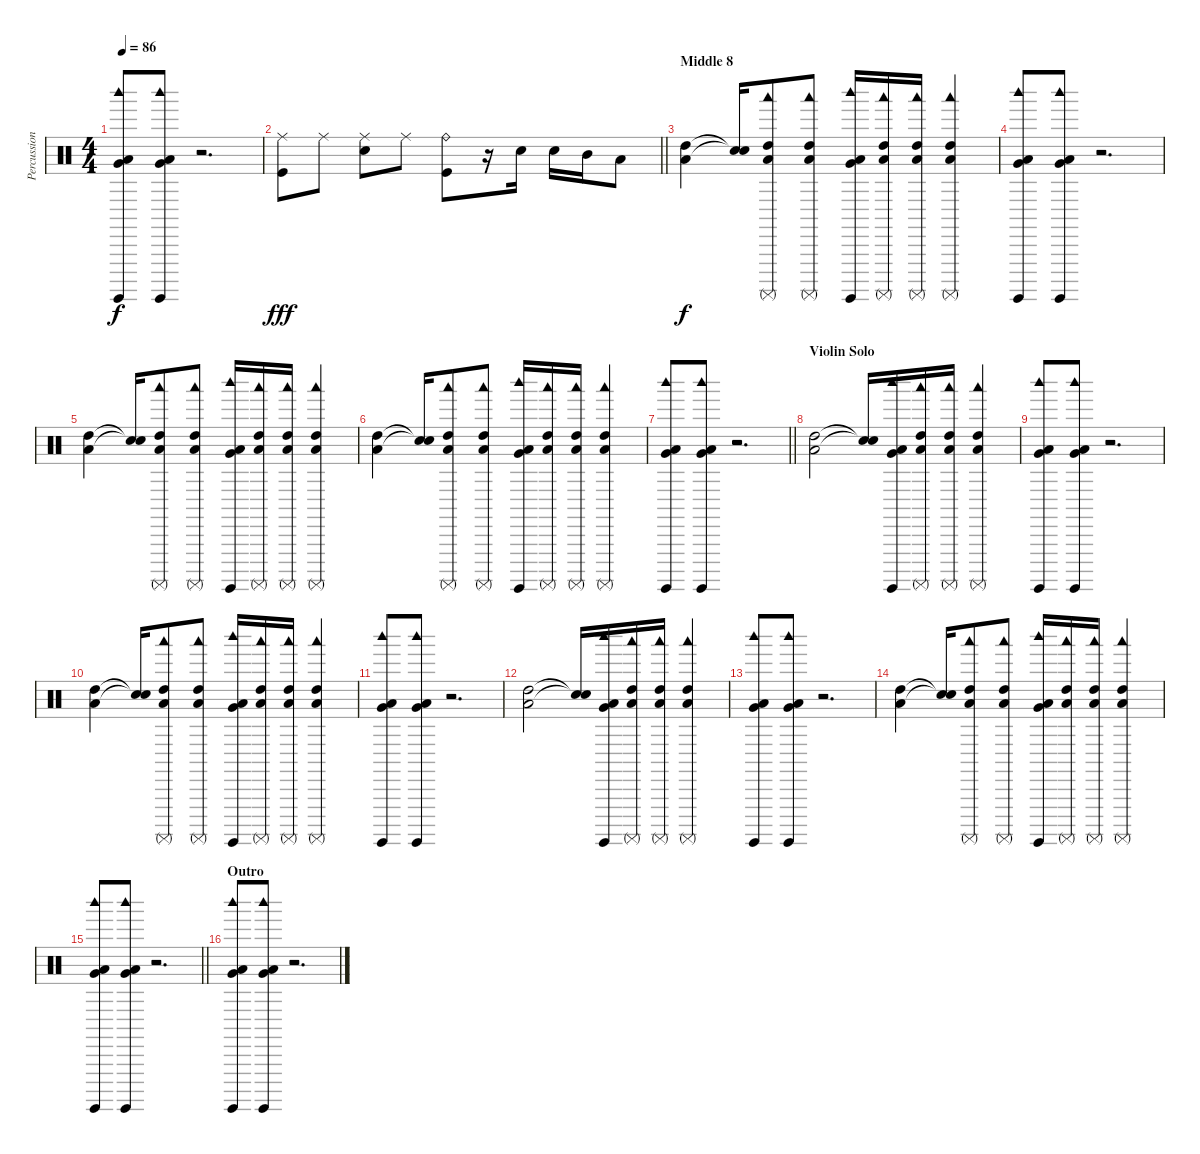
\track ("Percussion 2" "Percussion") {instrument percussion}
\staff {score}
\articulation defaults
\ts (4 4)
\tempo 86
\clef neutral
\ks c
("Low Tom (hit)" "Woodblock high (hit)" "Surdo (hit)" "Very Low Tom (hit)").8{dy f} ("Low Tom (hit)" "Woodblock high (hit)" "Surdo (hit)" "Very Low Tom (hit)").8 r.2{d} |
\barLineRight lightlight
("Ride (middle)" "Kick (hit)").8{dy fff} "Ride (middle)".8 ("Ride (middle)" "Electric Snare (hit)").8 "Ride (middle)".8 ("Ride (bell)" "Kick (hit)").8 r.16 "Electric Snare (hit)".16 "Electric Snare (hit)".16 "Mid Tom (hit)".16 "Low Tom (hit)".8 |
\section ("" "Middle 8")
("High Tom (hit)" "Low Tom (hit)").4{dy f} ("Snare (hit)"{t} "Snare (hit)"{t}).16 ("High Tom (hit)" "Woodblock low (hit)" "Surdo (mute)" "Low Tom (hit)").8 ("High Tom (hit)" "Woodblock low (hit)" "Surdo (mute)" "Low Tom (hit)").8 ("Low Tom (hit)" "Woodblock high (hit)" "Surdo (hit)" "Very Low Tom (hit)").16 ("High Tom (hit)" "Woodblock low (hit)" "Surdo (mute)" "Low Tom (hit)").16 ("High Tom (hit)" "Woodblock low (hit)" "Surdo (mute)" "Low Tom (hit)").16 ("High Tom (hit)" "Woodblock low (hit)" "Surdo (mute)" "Low Tom (hit)").4 |
("Low Tom (hit)" "Woodblock high (hit)" "Surdo (hit)" "Very Low Tom (hit)").8 ("Low Tom (hit)" "Woodblock high (hit)" "Surdo (hit)" "Very Low Tom (hit)").8 r.2{d} |
("High Tom (hit)" "Low Tom (hit)").4 ("Snare (hit)"{t} "Snare (hit)"{t}).16 ("High Tom (hit)" "Woodblock low (hit)" "Surdo (mute)" "Low Tom (hit)").8 ("High Tom (hit)" "Woodblock low (hit)" "Surdo (mute)" "Low Tom (hit)").8 ("Low Tom (hit)" "Woodblock high (hit)" "Surdo (hit)" "Very Low Tom (hit)").16 ("High Tom (hit)" "Woodblock low (hit)" "Surdo (mute)" "Low Tom (hit)").16 ("High Tom (hit)" "Woodblock low (hit)" "Surdo (mute)" "Low Tom (hit)").16 ("High Tom (hit)" "Woodblock low (hit)" "Surdo (mute)" "Low Tom (hit)").4 |
("High Tom (hit)" "Low Tom (hit)").4 ("Snare (hit)"{t} "Snare (hit)"{t}).16 ("High Tom (hit)" "Woodblock low (hit)" "Surdo (mute)" "Low Tom (hit)").8 ("High Tom (hit)" "Woodblock low (hit)" "Surdo (mute)" "Low Tom (hit)").8 ("Low Tom (hit)" "Woodblock high (hit)" "Surdo (hit)" "Very Low Tom (hit)").16 ("High Tom (hit)" "Woodblock low (hit)" "Surdo (mute)" "Low Tom (hit)").16 ("High Tom (hit)" "Woodblock low (hit)" "Surdo (mute)" "Low Tom (hit)").16 ("High Tom (hit)" "Woodblock low (hit)" "Surdo (mute)" "Low Tom (hit)").4 |
\barLineRight lightlight
("Low Tom (hit)" "Woodblock high (hit)" "Surdo (hit)" "Very Low Tom (hit)").8 ("Low Tom (hit)" "Woodblock high (hit)" "Surdo (hit)" "Very Low Tom (hit)").8 r.2{d} |
\section ("" "Violin Solo")
("High Tom (hit)" "Low Tom (hit)").2 ("Snare (hit)"{t} "Snare (hit)"{t}).16 ("Low Tom (hit)" "Woodblock high (hit)" "Surdo (hit)" "Very Low Tom (hit)").16 ("High Tom (hit)" "Woodblock low (hit)" "Surdo (mute)" "Low Tom (hit)").16 ("High Tom (hit)" "Woodblock low (hit)" "Surdo (mute)" "Low Tom (hit)").16 ("High Tom (hit)" "Woodblock low (hit)" "Surdo (mute)" "Low Tom (hit)").4 |
("Low Tom (hit)" "Woodblock high (hit)" "Surdo (hit)" "Very Low Tom (hit)").8 ("Low Tom (hit)" "Woodblock high (hit)" "Surdo (hit)" "Very Low Tom (hit)").8 r.2{d} |
("High Tom (hit)" "Low Tom (hit)").4 ("Snare (hit)"{t} "Snare (hit)"{t}).16 ("High Tom (hit)" "Woodblock low (hit)" "Surdo (mute)" "Low Tom (hit)").8 ("High Tom (hit)" "Woodblock low (hit)" "Surdo (mute)" "Low Tom (hit)").8 ("Low Tom (hit)" "Woodblock high (hit)" "Surdo (hit)" "Very Low Tom (hit)").16 ("High Tom (hit)" "Woodblock low (hit)" "Surdo (mute)" "Low Tom (hit)").16 ("High Tom (hit)" "Woodblock low (hit)" "Surdo (mute)" "Low Tom (hit)").16 ("High Tom (hit)" "Woodblock low (hit)" "Surdo (mute)" "Low Tom (hit)").4 |
("Low Tom (hit)" "Woodblock high (hit)" "Surdo (hit)" "Very Low Tom (hit)").8 ("Low Tom (hit)" "Woodblock high (hit)" "Surdo (hit)" "Very Low Tom (hit)").8 r.2{d} |
("High Tom (hit)" "Low Tom (hit)").2 ("Snare (hit)"{t} "Snare (hit)"{t}).16 ("Low Tom (hit)" "Woodblock high (hit)" "Surdo (hit)" "Very Low Tom (hit)").16 ("High Tom (hit)" "Woodblock low (hit)" "Surdo (mute)" "Low Tom (hit)").16 ("High Tom (hit)" "Woodblock low (hit)" "Surdo (mute)" "Low Tom (hit)").16 ("High Tom (hit)" "Woodblock low (hit)" "Surdo (mute)" "Low Tom (hit)").4 |
("Low Tom (hit)" "Woodblock high (hit)" "Surdo (hit)" "Very Low Tom (hit)").8 ("Low Tom (hit)" "Woodblock high (hit)" "Surdo (hit)" "Very Low Tom (hit)").8 r.2{d} |
("High Tom (hit)" "Low Tom (hit)").4 ("Snare (hit)"{t} "Snare (hit)"{t}).16 ("High Tom (hit)" "Woodblock low (hit)" "Surdo (mute)" "Low Tom (hit)").8 ("High Tom (hit)" "Woodblock low (hit)" "Surdo (mute)" "Low Tom (hit)").8 ("Low Tom (hit)" "Woodblock high (hit)" "Surdo (hit)" "Very Low Tom (hit)").16 ("High Tom (hit)" "Woodblock low (hit)" "Surdo (mute)" "Low Tom (hit)").16 ("High Tom (hit)" "Woodblock low (hit)" "Surdo (mute)" "Low Tom (hit)").16 ("High Tom (hit)" "Woodblock low (hit)" "Surdo (mute)" "Low Tom (hit)").4 |
\barLineRight lightlight
("Low Tom (hit)" "Woodblock high (hit)" "Surdo (hit)" "Very Low Tom (hit)").8 ("Low Tom (hit)" "Woodblock high (hit)" "Surdo (hit)" "Very Low Tom (hit)").8 r.2{d} |
\section ("" "Outro")
("Low Tom (hit)" "Woodblock high (hit)" "Surdo (hit)" "Very Low Tom (hit)").8 ("Low Tom (hit)" "Woodblock high (hit)" "Surdo (hit)" "Very Low Tom (hit)").8 r.2{d}
